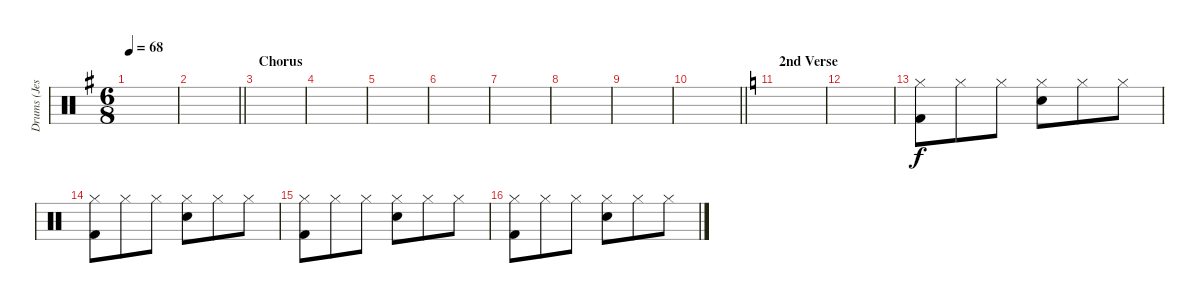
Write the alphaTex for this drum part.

\track ("Drums (Jesper Lind)" "Drums (Jes") {instrument percussion}
\staff {score}
\articulation defaults
\ts (6 8)
\tempo 68
\clef neutral
\ks eminor
|
\barLineRight lightlight
|
\section ("" "Chorus")
|
|
|
|
|
|
|
\barLineRight lightlight
|
\section ("" "2nd Verse")
\ks aminor
|
|
("Hi-Hat (closed)" "Kick (hit) 2").8 "Hi-Hat (closed)".8 "Hi-Hat (closed)".8 ("Hi-Hat (closed)" "Electric Snare (hit)").8 "Hi-Hat (closed)".8 "Hi-Hat (closed)".8 |
("Hi-Hat (closed)" "Kick (hit) 2").8 "Hi-Hat (closed)".8 "Hi-Hat (closed)".8 ("Hi-Hat (closed)" "Electric Snare (hit)").8 "Hi-Hat (closed)".8 "Hi-Hat (closed)".8 |
("Hi-Hat (closed)" "Kick (hit) 2").8 "Hi-Hat (closed)".8 "Hi-Hat (closed)".8 ("Hi-Hat (closed)" "Electric Snare (hit)").8 "Hi-Hat (closed)".8 "Hi-Hat (closed)".8 |
("Hi-Hat (closed)" "Kick (hit) 2").8 "Hi-Hat (closed)".8 "Hi-Hat (closed)".8 ("Hi-Hat (closed)" "Electric Snare (hit)").8 "Hi-Hat (closed)".8 "Hi-Hat (closed)".8
